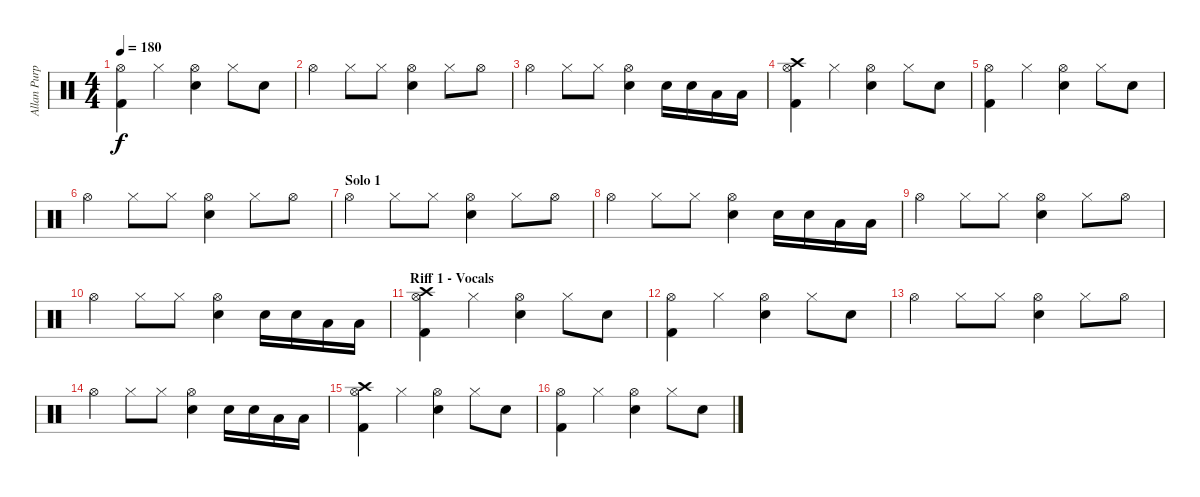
\track ("Allan Purple" "Allan Purp") {instrument percussion}
\staff {score}
\articulation defaults
\ts (4 4)
\tempo 180
\clef neutral
\ks c
("Hi-Hat (open)" "Kick (hit) 2").4{dy f} "Hi-Hat (closed)".4 ("Hi-Hat (open)" "Snare (hit) 2").4 "Hi-Hat (closed)".8 "Snare (hit) 2".8 |
"Hi-Hat (open)".4 "Hi-Hat (closed)".8 "Hi-Hat (closed)".8 ("Hi-Hat (open)" "Snare (hit) 2").4 "Hi-Hat (closed)".8 "Hi-Hat (open)".8 |
"Hi-Hat (open)".4 "Hi-Hat (closed)".8 "Hi-Hat (closed)".8 ("Hi-Hat (open)" "Snare (hit) 2").4 "Electric Snare (hit)".16 "Electric Snare (hit)".16 "Low Tom (hit)".16 "Low Tom (hit)".16 |
("Crash high (hit)" "Hi-Hat (open)" "Kick (hit) 2").4 "Hi-Hat (closed)".4 ("Hi-Hat (open)" "Snare (hit) 2").4 "Hi-Hat (closed)".8 "Snare (hit) 2".8 |
("Hi-Hat (open)" "Kick (hit) 2").4 "Hi-Hat (closed)".4 ("Hi-Hat (open)" "Snare (hit) 2").4 "Hi-Hat (closed)".8 "Snare (hit) 2".8 |
"Hi-Hat (open)".4 "Hi-Hat (closed)".8 "Hi-Hat (closed)".8 ("Hi-Hat (open)" "Snare (hit) 2").4 "Hi-Hat (closed)".8 "Hi-Hat (open)".8 |
\section ("" "Solo 1")
"Hi-Hat (open)".4 "Hi-Hat (closed)".8 "Hi-Hat (closed)".8 ("Hi-Hat (open)" "Snare (hit) 2").4 "Hi-Hat (closed)".8 "Hi-Hat (open)".8 |
"Hi-Hat (open)".4 "Hi-Hat (closed)".8 "Hi-Hat (closed)".8 ("Hi-Hat (open)" "Snare (hit) 2").4 "Electric Snare (hit)".16 "Electric Snare (hit)".16 "Low Tom (hit)".16 "Low Tom (hit)".16 |
"Hi-Hat (open)".4 "Hi-Hat (closed)".8 "Hi-Hat (closed)".8 ("Hi-Hat (open)" "Snare (hit) 2").4 "Hi-Hat (closed)".8 "Hi-Hat (open)".8 |
"Hi-Hat (open)".4 "Hi-Hat (closed)".8 "Hi-Hat (closed)".8 ("Hi-Hat (open)" "Snare (hit) 2").4 "Electric Snare (hit)".16 "Electric Snare (hit)".16 "Low Tom (hit)".16 "Low Tom (hit)".16 |
\section ("" "Riff 1 - Vocals")
("Crash high (hit)" "Hi-Hat (open)" "Kick (hit) 2").4 "Hi-Hat (closed)".4 ("Hi-Hat (open)" "Snare (hit) 2").4 "Hi-Hat (closed)".8 "Snare (hit) 2".8 |
("Hi-Hat (open)" "Kick (hit) 2").4 "Hi-Hat (closed)".4 ("Hi-Hat (open)" "Snare (hit) 2").4 "Hi-Hat (closed)".8 "Snare (hit) 2".8 |
"Hi-Hat (open)".4 "Hi-Hat (closed)".8 "Hi-Hat (closed)".8 ("Hi-Hat (open)" "Snare (hit) 2").4 "Hi-Hat (closed)".8 "Hi-Hat (open)".8 |
"Hi-Hat (open)".4 "Hi-Hat (closed)".8 "Hi-Hat (closed)".8 ("Hi-Hat (open)" "Snare (hit) 2").4 "Electric Snare (hit)".16 "Electric Snare (hit)".16 "Low Tom (hit)".16 "Low Tom (hit)".16 |
("Crash high (hit)" "Hi-Hat (open)" "Kick (hit) 2").4 "Hi-Hat (closed)".4 ("Hi-Hat (open)" "Snare (hit) 2").4 "Hi-Hat (closed)".8 "Snare (hit) 2".8 |
("Hi-Hat (open)" "Kick (hit) 2").4 "Hi-Hat (closed)".4 ("Hi-Hat (open)" "Snare (hit) 2").4 "Hi-Hat (closed)".8 "Snare (hit) 2".8
